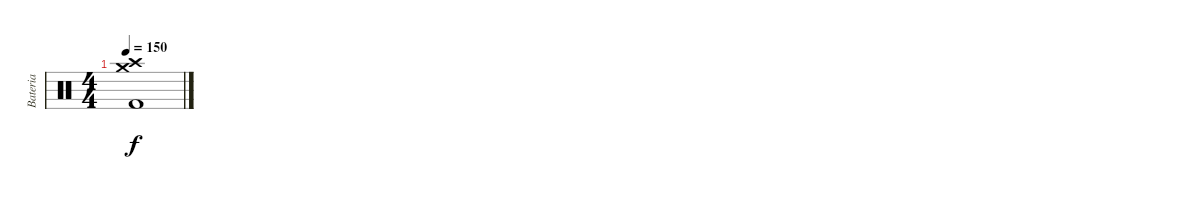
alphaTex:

\track ("Bateria" "Bateria") {instrument percussion}
\staff {score}
\articulation defaults
\ts (4 4)
\tempo 150
\clef neutral
\ks c
("Crash medium (hit)" "Crash high (hit)" "Kick (hit) 2").1{dy f}
